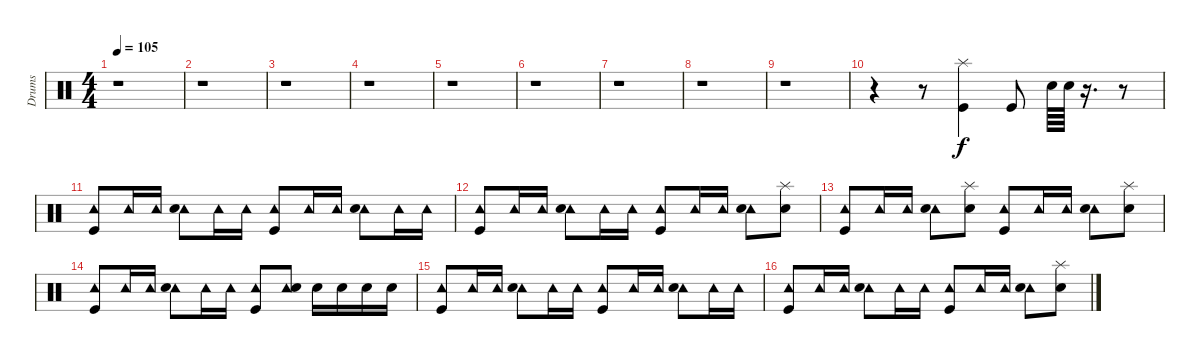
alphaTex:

\track ("Drums" "Drums") {instrument percussion}
\staff {score}
\articulation defaults
\ts (4 4)
\tempo 105
\clef neutral
\ks c
r.1{dy f} |
r.1 |
r.1 |
r.1 |
r.1 |
r.1 |
r.1 |
r.1 |
r.1 |
r.4 r.8 ("Kick (hit)" "Splash (hit)").4 "Kick (hit)".8 "Snare (hit) 2".64 "Snare (hit) 2".64 r.16{d} r.8 |
("Tambourine (hit)" "Kick (hit)").8 "Tambourine (hit)".16 "Tambourine (hit)".16 ("Tambourine (hit)" "Snare (hit) 2").8 "Tambourine (hit)".16 "Tambourine (hit)".16 ("Tambourine (hit)" "Kick (hit)").8 "Tambourine (hit)".16 "Tambourine (hit)".16 ("Tambourine (hit)" "Snare (hit) 2").8 "Tambourine (hit)".16 "Tambourine (hit)".16 |
("Tambourine (hit)" "Kick (hit)").8 "Tambourine (hit)".16 "Tambourine (hit)".16 ("Tambourine (hit)" "Snare (hit) 2").8 "Tambourine (hit)".16 "Tambourine (hit)".16 ("Tambourine (hit)" "Kick (hit)").8 "Tambourine (hit)".16 "Tambourine (hit)".16 ("Tambourine (hit)" "Snare (hit) 2").8 ("Splash (hit)" "Snare (hit) 2").8 |
("Tambourine (hit)" "Kick (hit)").8 "Tambourine (hit)".16 "Tambourine (hit)".16 ("Tambourine (hit)" "Snare (hit) 2").8 ("Splash (hit)" "Snare (hit) 2").8 ("Tambourine (hit)" "Kick (hit)").8 "Tambourine (hit)".16 "Tambourine (hit)".16 ("Tambourine (hit)" "Snare (hit) 2").8 ("Splash (hit)" "Snare (hit) 2").8 |
("Tambourine (hit)" "Kick (hit)").8 "Tambourine (hit)".16 "Tambourine (hit)".16 ("Tambourine (hit)" "Snare (hit) 2").8 "Tambourine (hit)".16 "Tambourine (hit)".16 ("Tambourine (hit)" "Kick (hit)").8 ("Tambourine (hit)" "Snare (hit) 2").8 "Snare (hit) 2".16 "Snare (hit) 2".16 "Snare (hit) 2".16 "Snare (hit) 2".16 |
("Tambourine (hit)" "Kick (hit)").8 "Tambourine (hit)".16 "Tambourine (hit)".16 ("Tambourine (hit)" "Snare (hit) 2").8 "Tambourine (hit)".16 "Tambourine (hit)".16 ("Tambourine (hit)" "Kick (hit)").8 "Tambourine (hit)".16 "Tambourine (hit)".16 ("Tambourine (hit)" "Snare (hit) 2").8 "Tambourine (hit)".16 "Tambourine (hit)".16 |
("Tambourine (hit)" "Kick (hit)").8 "Tambourine (hit)".16 "Tambourine (hit)".16 ("Tambourine (hit)" "Snare (hit) 2").8 "Tambourine (hit)".16 "Tambourine (hit)".16 ("Tambourine (hit)" "Kick (hit)").8 "Tambourine (hit)".16 "Tambourine (hit)".16 ("Tambourine (hit)" "Snare (hit) 2").8 ("Splash (hit)" "Snare (hit) 2").8
